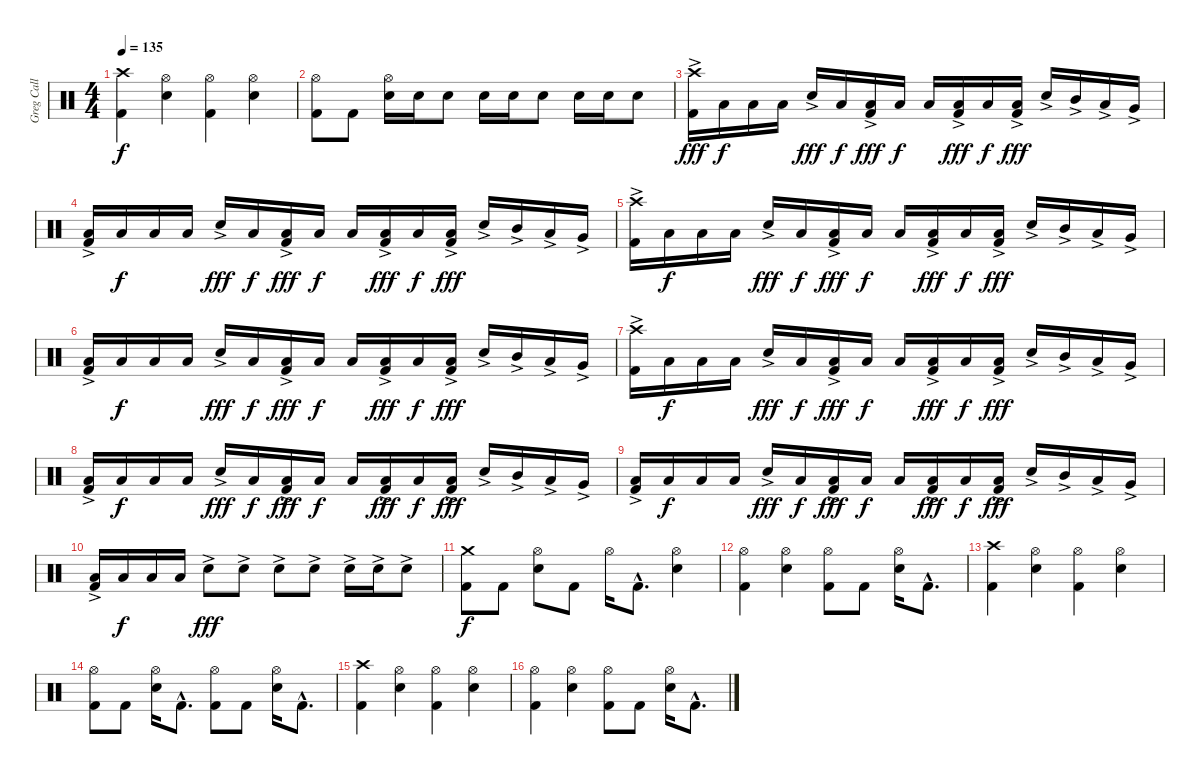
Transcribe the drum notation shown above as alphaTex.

\track ("Greg Call (Drums)" "Greg Call ") {instrument percussion}
\staff {score}
\articulation defaults
\ts (4 4)
\tempo 135
\clef neutral
\ks c
("Crash high (hit)" "Kick (hit) 2").4{dy f} ("Hi-Hat (open)" "Snare (hit) 2").4 ("Hi-Hat (open)" "Kick (hit) 2").4 ("Hi-Hat (open)" "Snare (hit) 2").4 |
("Hi-Hat (open)" "Kick (hit) 2").8 "Kick (hit) 2".8 ("Hi-Hat (open)" "Snare (hit) 2").16 "Snare (hit) 2".16 "Snare (hit) 2".8 "Snare (hit) 2".16 "Snare (hit) 2".16 "Snare (hit) 2".8 "Snare (hit) 2".16 "Snare (hit) 2".16 "Snare (hit) 2".8 |
("Crash high (hit)" "Kick (hit) 2"{ac}).16{dy fff} "Low Floor Tom (hit)".16{dy f} "Low Floor Tom (hit)".16 "Low Floor Tom (hit)".16 "Electric Snare (hit)"{ac}.16{dy fff} "Low Floor Tom (hit)".16{dy f} ("Kick (hit) 2" "Low Floor Tom (hit)"{ac}).16{dy fff} "Low Floor Tom (hit)".16{dy f} "Low Floor Tom (hit)".16 ("Kick (hit) 2" "Low Floor Tom (hit)"{ac}).16{dy fff} "Low Floor Tom (hit)".16{dy f} ("Kick (hit) 2" "Low Floor Tom (hit)"{ac}).16{dy fff} "Electric Snare (hit)"{ac}.16 "Mid Tom (hit)"{ac}.16 "Low Tom (hit)"{ac}.16 "Very Low Tom (hit)"{ac}.16 |
("Low Floor Tom (hit)" "Kick (hit) 2"{ac}).16 "Low Floor Tom (hit)".16{dy f} "Low Floor Tom (hit)".16 "Low Floor Tom (hit)".16 "Electric Snare (hit)"{ac}.16{dy fff} "Low Floor Tom (hit)".16{dy f} ("Kick (hit) 2" "Low Floor Tom (hit)"{ac}).16{dy fff} "Low Floor Tom (hit)".16{dy f} "Low Floor Tom (hit)".16 ("Kick (hit) 2" "Low Floor Tom (hit)"{ac}).16{dy fff} "Low Floor Tom (hit)".16{dy f} ("Kick (hit) 2" "Low Floor Tom (hit)"{ac}).16{dy fff} "Electric Snare (hit)"{ac}.16 "Mid Tom (hit)"{ac}.16 "Low Tom (hit)"{ac}.16 "Very Low Tom (hit)"{ac}.16 |
("Crash high (hit)" "Kick (hit) 2"{ac}).16 "Low Floor Tom (hit)".16{dy f} "Low Floor Tom (hit)".16 "Low Floor Tom (hit)".16 "Electric Snare (hit)"{ac}.16{dy fff} "Low Floor Tom (hit)".16{dy f} ("Kick (hit) 2" "Low Floor Tom (hit)"{ac}).16{dy fff} "Low Floor Tom (hit)".16{dy f} "Low Floor Tom (hit)".16 ("Kick (hit) 2" "Low Floor Tom (hit)"{ac}).16{dy fff} "Low Floor Tom (hit)".16{dy f} ("Kick (hit) 2" "Low Floor Tom (hit)"{ac}).16{dy fff} "Electric Snare (hit)"{ac}.16 "Mid Tom (hit)"{ac}.16 "Low Tom (hit)"{ac}.16 "Very Low Tom (hit)"{ac}.16 |
("Low Floor Tom (hit)" "Kick (hit) 2"{ac}).16 "Low Floor Tom (hit)".16{dy f} "Low Floor Tom (hit)".16 "Low Floor Tom (hit)".16 "Electric Snare (hit)"{ac}.16{dy fff} "Low Floor Tom (hit)".16{dy f} ("Kick (hit) 2" "Low Floor Tom (hit)"{ac}).16{dy fff} "Low Floor Tom (hit)".16{dy f} "Low Floor Tom (hit)".16 ("Kick (hit) 2" "Low Floor Tom (hit)"{ac}).16{dy fff} "Low Floor Tom (hit)".16{dy f} ("Kick (hit) 2" "Low Floor Tom (hit)"{ac}).16{dy fff} "Electric Snare (hit)"{ac}.16 "Mid Tom (hit)"{ac}.16 "Low Tom (hit)"{ac}.16 "Very Low Tom (hit)"{ac}.16 |
("Crash high (hit)" "Kick (hit) 2"{ac}).16 "Low Floor Tom (hit)".16{dy f} "Low Floor Tom (hit)".16 "Low Floor Tom (hit)".16 "Electric Snare (hit)"{ac}.16{dy fff} "Low Floor Tom (hit)".16{dy f} ("Kick (hit) 2" "Low Floor Tom (hit)"{ac}).16{dy fff} "Low Floor Tom (hit)".16{dy f} "Low Floor Tom (hit)".16 ("Kick (hit) 2" "Low Floor Tom (hit)"{ac}).16{dy fff} "Low Floor Tom (hit)".16{dy f} ("Kick (hit) 2" "Low Floor Tom (hit)"{ac}).16{dy fff} "Electric Snare (hit)"{ac}.16 "Mid Tom (hit)"{ac}.16 "Low Tom (hit)"{ac}.16 "Very Low Tom (hit)"{ac}.16 |
("Low Floor Tom (hit)" "Kick (hit) 2"{ac}).16 "Low Floor Tom (hit)".16{dy f} "Low Floor Tom (hit)".16 "Low Floor Tom (hit)".16 "Electric Snare (hit)"{ac}.16{dy fff} "Low Floor Tom (hit)".16{dy f} ("Kick (hit) 2" "Low Floor Tom (hit)"{ac}).16{dy fff} "Low Floor Tom (hit)".16{dy f} "Low Floor Tom (hit)".16 ("Kick (hit) 2" "Low Floor Tom (hit)"{ac}).16{dy fff} "Low Floor Tom (hit)".16{dy f} ("Kick (hit) 2" "Low Floor Tom (hit)"{ac}).16{dy fff} "Electric Snare (hit)"{ac}.16 "Mid Tom (hit)"{ac}.16 "Low Tom (hit)"{ac}.16 "Very Low Tom (hit)"{ac}.16 |
("Low Floor Tom (hit)" "Kick (hit) 2"{ac}).16 "Low Floor Tom (hit)".16{dy f} "Low Floor Tom (hit)".16 "Low Floor Tom (hit)".16 "Electric Snare (hit)"{ac}.16{dy fff} "Low Floor Tom (hit)".16{dy f} ("Kick (hit) 2" "Low Floor Tom (hit)"{ac}).16{dy fff} "Low Floor Tom (hit)".16{dy f} "Low Floor Tom (hit)".16 ("Kick (hit) 2" "Low Floor Tom (hit)"{ac}).16{dy fff} "Low Floor Tom (hit)".16{dy f} ("Kick (hit) 2" "Low Floor Tom (hit)"{ac}).16{dy fff} "Electric Snare (hit)"{ac}.16 "Mid Tom (hit)"{ac}.16 "Low Tom (hit)"{ac}.16 "Very Low Tom (hit)"{ac}.16 |
("Low Floor Tom (hit)" "Kick (hit) 2"{ac}).16 "Low Floor Tom (hit)".16{dy f} "Low Floor Tom (hit)".16 "Low Floor Tom (hit)".16 "Electric Snare (hit)"{ac}.8{dy fff} "Electric Snare (hit)"{ac}.8 "Electric Snare (hit)"{ac}.8 "Electric Snare (hit)"{ac}.8 "Electric Snare (hit)"{ac}.16 "Electric Snare (hit)"{ac}.16 "Electric Snare (hit)"{ac}.8 |
("Crash medium (hit)" "Kick (hit) 2").8{dy f} "Kick (hit) 2".8 ("Hi-Hat (open)" "Snare (hit) 2").8 "Kick (hit) 2".8 "Hi-Hat (open)".16 "Kick (hit) 2"{hac}.8{d} ("Hi-Hat (open)" "Snare (hit) 2").4 |
("Hi-Hat (open)" "Kick (hit) 2").4 ("Hi-Hat (open)" "Snare (hit) 2").4 ("Hi-Hat (open)" "Kick (hit) 2").8 "Kick (hit) 2".8 ("Hi-Hat (open)" "Snare (hit) 2").16 "Kick (hit) 2"{hac}.8{d} |
("Crash high (hit)" "Kick (hit) 2").4 ("Hi-Hat (open)" "Snare (hit) 2").4 ("Hi-Hat (open)" "Kick (hit) 2").4 ("Hi-Hat (open)" "Snare (hit) 2").4 |
("Hi-Hat (open)" "Kick (hit) 2").8 "Kick (hit) 2".8 ("Hi-Hat (open)" "Snare (hit) 2").16 "Kick (hit) 2"{hac}.8{d} ("Hi-Hat (open)" "Kick (hit) 2").8 "Kick (hit) 2".8 ("Hi-Hat (open)" "Snare (hit) 2").16 "Kick (hit) 2"{hac}.8{d} |
("Crash high (hit)" "Kick (hit) 2").4 ("Hi-Hat (open)" "Snare (hit) 2").4 ("Hi-Hat (open)" "Kick (hit) 2").4 ("Hi-Hat (open)" "Snare (hit) 2").4 |
("Hi-Hat (open)" "Kick (hit) 2").4 ("Hi-Hat (open)" "Snare (hit) 2").4 ("Hi-Hat (open)" "Kick (hit) 2").8 "Kick (hit) 2".8 ("Hi-Hat (open)" "Snare (hit) 2").16 "Kick (hit) 2"{hac}.8{d}
